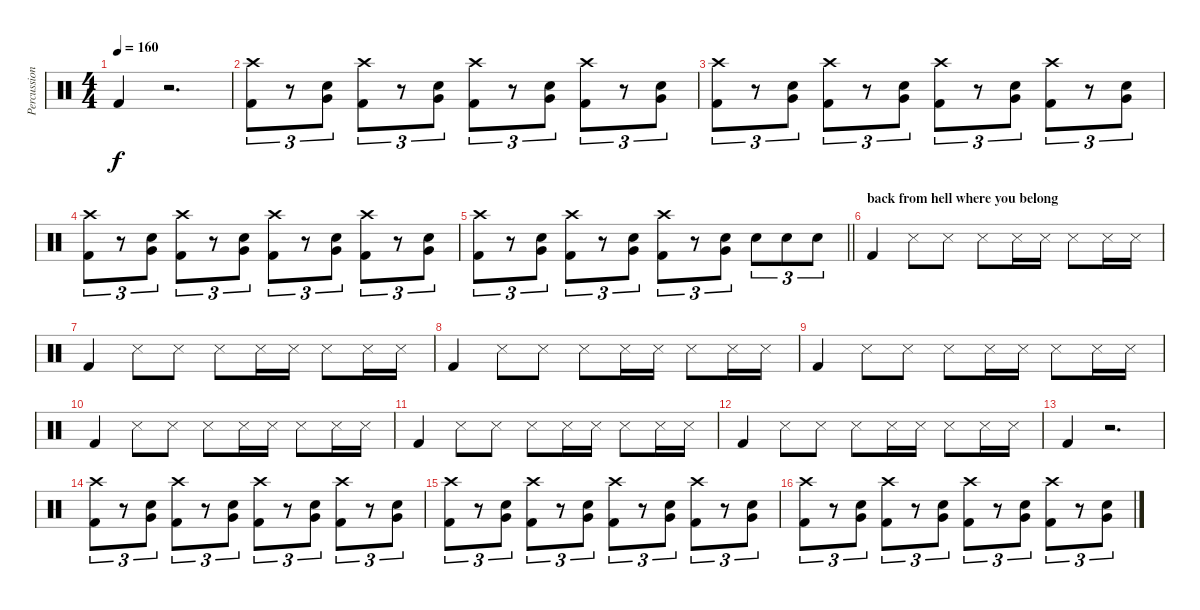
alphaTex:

\track ("Percussion" "Percussion") {instrument percussion}
\staff {score}
\articulation defaults
\ts (4 4)
\tempo 160
\clef neutral
\ks c "Kick (hit) 2".4{dy f}
r.2{d} |
("Crash high (hit)" "Kick (hit) 2").8{tu (3 2)} r.8{tu (3 2)} ("Snare (hit) 2" "Very Low Tom (hit)").8{tu (3 2)} ("Crash high (hit)" "Kick (hit) 2").8{tu (3 2)} r.8{tu (3 2)} ("Snare (hit) 2" "Very Low Tom (hit)").8{tu (3 2)} ("Crash high (hit)" "Kick (hit) 2").8{tu (3 2)} r.8{tu (3 2)} ("Snare (hit) 2" "Very Low Tom (hit)").8{tu (3 2)} ("Crash high (hit)" "Kick (hit) 2").8{tu (3 2)} r.8{tu (3 2)} ("Snare (hit) 2" "Very Low Tom (hit)").8{tu (3 2)} |
("Crash high (hit)" "Kick (hit) 2").8{tu (3 2)} r.8{tu (3 2)} ("Snare (hit) 2" "Very Low Tom (hit)").8{tu (3 2)} ("Crash high (hit)" "Kick (hit) 2").8{tu (3 2)} r.8{tu (3 2)} ("Snare (hit) 2" "Very Low Tom (hit)").8{tu (3 2)} ("Crash high (hit)" "Kick (hit) 2").8{tu (3 2)} r.8{tu (3 2)} ("Snare (hit) 2" "Very Low Tom (hit)").8{tu (3 2)} ("Crash high (hit)" "Kick (hit) 2").8{tu (3 2)} r.8{tu (3 2)} ("Snare (hit) 2" "Very Low Tom (hit)").8{tu (3 2)} |
("Crash high (hit)" "Kick (hit) 2").8{tu (3 2)} r.8{tu (3 2)} ("Snare (hit) 2" "Very Low Tom (hit)").8{tu (3 2)} ("Crash high (hit)" "Kick (hit) 2").8{tu (3 2)} r.8{tu (3 2)} ("Snare (hit) 2" "Very Low Tom (hit)").8{tu (3 2)} ("Crash high (hit)" "Kick (hit) 2").8{tu (3 2)} r.8{tu (3 2)} ("Snare (hit) 2" "Very Low Tom (hit)").8{tu (3 2)} ("Crash high (hit)" "Kick (hit) 2").8{tu (3 2)} r.8{tu (3 2)} ("Snare (hit) 2" "Very Low Tom (hit)").8{tu (3 2)} |
\barLineRight lightlight
("Crash high (hit)" "Kick (hit) 2").8{tu (3 2)} r.8{tu (3 2)} ("Snare (hit) 2" "Very Low Tom (hit)").8{tu (3 2)} ("Crash high (hit)" "Kick (hit) 2").8{tu (3 2)} r.8{tu (3 2)} ("Snare (hit) 2" "Very Low Tom (hit)").8{tu (3 2)} ("Crash high (hit)" "Kick (hit) 2").8{tu (3 2)} r.8{tu (3 2)} ("Snare (hit) 2" "Very Low Tom (hit)").8{tu (3 2)} "Snare (hit) 2".8{tu (3 2)} "Snare (hit) 2".8{tu (3 2)} "Snare (hit) 2".8{tu (3 2)} |
\section ("" "back from hell where you belong")
"Kick (hit) 2".4 "Snare (side stick) 3".8 "Snare (side stick) 3".8 "Snare (side stick) 3".8 "Snare (side stick) 3".16 "Snare (side stick) 3".16 "Snare (side stick) 3".8 "Snare (side stick) 3".16 "Snare (side stick) 3".16 |
"Kick (hit) 2".4 "Snare (side stick) 3".8 "Snare (side stick) 3".8 "Snare (side stick) 3".8 "Snare (side stick) 3".16 "Snare (side stick) 3".16 "Snare (side stick) 3".8 "Snare (side stick) 3".16 "Snare (side stick) 3".16 |
"Kick (hit) 2".4 "Snare (side stick) 3".8 "Snare (side stick) 3".8 "Snare (side stick) 3".8 "Snare (side stick) 3".16 "Snare (side stick) 3".16 "Snare (side stick) 3".8 "Snare (side stick) 3".16 "Snare (side stick) 3".16 |
"Kick (hit) 2".4 "Snare (side stick) 3".8 "Snare (side stick) 3".8 "Snare (side stick) 3".8 "Snare (side stick) 3".16 "Snare (side stick) 3".16 "Snare (side stick) 3".8 "Snare (side stick) 3".16 "Snare (side stick) 3".16 |
"Kick (hit) 2".4 "Snare (side stick) 3".8 "Snare (side stick) 3".8 "Snare (side stick) 3".8 "Snare (side stick) 3".16 "Snare (side stick) 3".16 "Snare (side stick) 3".8 "Snare (side stick) 3".16 "Snare (side stick) 3".16 |
"Kick (hit) 2".4 "Snare (side stick) 3".8 "Snare (side stick) 3".8 "Snare (side stick) 3".8 "Snare (side stick) 3".16 "Snare (side stick) 3".16 "Snare (side stick) 3".8 "Snare (side stick) 3".16 "Snare (side stick) 3".16 |
"Kick (hit) 2".4 "Snare (side stick) 3".8 "Snare (side stick) 3".8 "Snare (side stick) 3".8 "Snare (side stick) 3".16 "Snare (side stick) 3".16 "Snare (side stick) 3".8 "Snare (side stick) 3".16 "Snare (side stick) 3".16 |
"Kick (hit) 2".4 r.2{d} |
("Crash high (hit)" "Kick (hit) 2").8{tu (3 2)} r.8{tu (3 2)} ("Snare (hit) 2" "Very Low Tom (hit)").8{tu (3 2)} ("Crash high (hit)" "Kick (hit) 2").8{tu (3 2)} r.8{tu (3 2)} ("Snare (hit) 2" "Very Low Tom (hit)").8{tu (3 2)} ("Crash high (hit)" "Kick (hit) 2").8{tu (3 2)} r.8{tu (3 2)} ("Snare (hit) 2" "Very Low Tom (hit)").8{tu (3 2)} ("Crash high (hit)" "Kick (hit) 2").8{tu (3 2)} r.8{tu (3 2)} ("Snare (hit) 2" "Very Low Tom (hit)").8{tu (3 2)} |
("Crash high (hit)" "Kick (hit) 2").8{tu (3 2)} r.8{tu (3 2)} ("Snare (hit) 2" "Very Low Tom (hit)").8{tu (3 2)} ("Crash high (hit)" "Kick (hit) 2").8{tu (3 2)} r.8{tu (3 2)} ("Snare (hit) 2" "Very Low Tom (hit)").8{tu (3 2)} ("Crash high (hit)" "Kick (hit) 2").8{tu (3 2)} r.8{tu (3 2)} ("Snare (hit) 2" "Very Low Tom (hit)").8{tu (3 2)} ("Crash high (hit)" "Kick (hit) 2").8{tu (3 2)} r.8{tu (3 2)} ("Snare (hit) 2" "Very Low Tom (hit)").8{tu (3 2)} |
("Crash high (hit)" "Kick (hit) 2").8{tu (3 2)} r.8{tu (3 2)} ("Snare (hit) 2" "Very Low Tom (hit)").8{tu (3 2)} ("Crash high (hit)" "Kick (hit) 2").8{tu (3 2)} r.8{tu (3 2)} ("Snare (hit) 2" "Very Low Tom (hit)").8{tu (3 2)} ("Crash high (hit)" "Kick (hit) 2").8{tu (3 2)} r.8{tu (3 2)} ("Snare (hit) 2" "Very Low Tom (hit)").8{tu (3 2)} ("Crash high (hit)" "Kick (hit) 2").8{tu (3 2)} r.8{tu (3 2)} ("Snare (hit) 2" "Very Low Tom (hit)").8{tu (3 2)}
